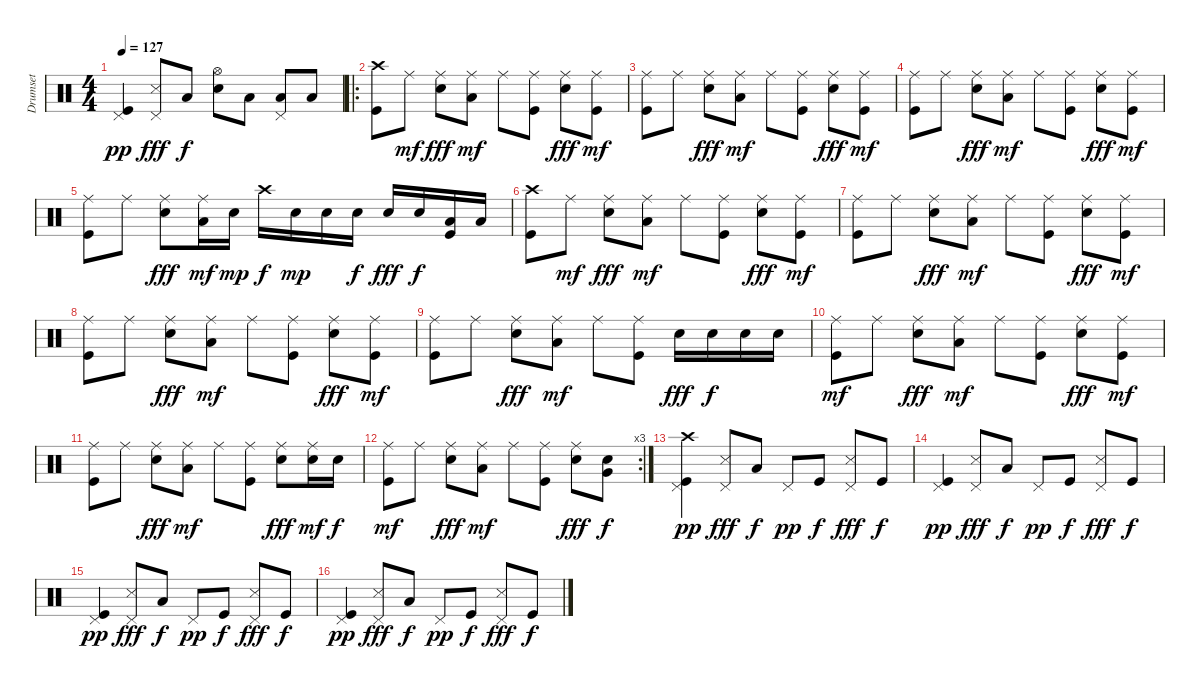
\track ("Drumset" "Drumset") {instrument percussion}
\staff {score}
\articulation defaults
\ts (4 4)
\tempo 127
\clef neutral
\ks c
("Pedal Hi-Hat (hit)" "Kick (hit)").4{dy pp} ("Pedal Hi-Hat (hit)" "Snare (side stick) 3").8{dy fff} "Low Tom (hit)".8{dy f} ("Hi-Hat (open)" "Electric Snare (hit)").8 "Low Tom (hit)".8 ("Pedal Hi-Hat (hit)" "Low Tom (hit)").8 "Low Tom (hit)".8 |
\ro
("Crash high (hit)" "Kick (hit)").8 "Ride (middle)".8{dy mf} ("Ride (middle)" "Electric Snare (hit)").8{dy fff} ("Ride (middle)" "Low Tom (hit)").8{dy mf} "Ride (middle)".8 ("Ride (middle)" "Kick (hit)").8 ("Ride (middle)" "Electric Snare (hit)").8{dy fff} ("Ride (middle)" "Kick (hit)").8{dy mf} |
("Ride (middle)" "Kick (hit)").8 "Ride (middle)".8 ("Ride (middle)" "Electric Snare (hit)").8{dy fff} ("Ride (middle)" "Low Tom (hit)").8{dy mf} "Ride (middle)".8 ("Ride (middle)" "Kick (hit)").8 ("Ride (middle)" "Electric Snare (hit)").8{dy fff} ("Ride (middle)" "Kick (hit)").8{dy mf} |
("Ride (middle)" "Kick (hit)").8 "Ride (middle)".8 ("Ride (middle)" "Electric Snare (hit)").8{dy fff} ("Ride (middle)" "Low Tom (hit)").8{dy mf} "Ride (middle)".8 ("Ride (middle)" "Kick (hit)").8 ("Ride (middle)" "Electric Snare (hit)").8{dy fff} ("Ride (middle)" "Kick (hit)").8{dy mf} |
("Ride (middle)" "Kick (hit)").8 "Ride (middle)".8 ("Ride (middle)" "Electric Snare (hit)").8{dy fff} ("Ride (middle)" "Low Tom (hit)").16{dy mf} "Electric Snare (hit)".16{dy mp} "Crash high (hit)".16{dy f} "Electric Snare (hit)".16{dy mp} "Electric Snare (hit)".16 "Electric Snare (hit)".16{dy f} "Electric Snare (hit)".16{dy fff} "Electric Snare (hit)".16{dy f} ("Low Tom (hit)" "Kick (hit)").16 "Low Tom (hit)".16 |
("Crash high (hit)" "Kick (hit)").8 "Ride (middle)".8{dy mf} ("Ride (middle)" "Electric Snare (hit)").8{dy fff} ("Ride (middle)" "Low Tom (hit)").8{dy mf} "Ride (middle)".8 ("Ride (middle)" "Kick (hit)").8 ("Ride (middle)" "Electric Snare (hit)").8{dy fff} ("Ride (middle)" "Kick (hit)").8{dy mf} |
("Ride (middle)" "Kick (hit)").8 "Ride (middle)".8 ("Ride (middle)" "Electric Snare (hit)").8{dy fff} ("Ride (middle)" "Low Tom (hit)").8{dy mf} "Ride (middle)".8 ("Ride (middle)" "Kick (hit)").8 ("Ride (middle)" "Electric Snare (hit)").8{dy fff} ("Ride (middle)" "Kick (hit)").8{dy mf} |
("Ride (middle)" "Kick (hit)").8 "Ride (middle)".8 ("Ride (middle)" "Electric Snare (hit)").8{dy fff} ("Ride (middle)" "Low Tom (hit)").8{dy mf} "Ride (middle)".8 ("Ride (middle)" "Kick (hit)").8 ("Ride (middle)" "Electric Snare (hit)").8{dy fff} ("Ride (middle)" "Kick (hit)").8{dy mf} |
("Ride (middle)" "Kick (hit)").8 "Ride (middle)".8 ("Ride (middle)" "Electric Snare (hit)").8{dy fff} ("Ride (middle)" "Low Tom (hit)").8{dy mf} "Ride (middle)".8 ("Ride (middle)" "Kick (hit)").8 "Electric Snare (hit)".16{dy fff} "Electric Snare (hit)".16{dy f} "Electric Snare (hit)".16 "Electric Snare (hit)".16 |
("Ride (middle)" "Kick (hit)").8{dy mf} "Ride (middle)".8 ("Ride (middle)" "Electric Snare (hit)").8{dy fff} ("Ride (middle)" "Low Tom (hit)").8{dy mf} "Ride (middle)".8 ("Ride (middle)" "Kick (hit)").8 ("Ride (middle)" "Electric Snare (hit)").8{dy fff} ("Ride (middle)" "Kick (hit)").8{dy mf} |
("Ride (middle)" "Kick (hit)").8 "Ride (middle)".8 ("Ride (middle)" "Electric Snare (hit)").8{dy fff} ("Ride (middle)" "Low Tom (hit)").8{dy mf} "Ride (middle)".8 ("Ride (middle)" "Kick (hit)").8 ("Ride (middle)" "Electric Snare (hit)").8{dy fff} ("Ride (middle)" "Electric Snare (hit)").16{dy mf} "Electric Snare (hit)".16{dy f} |
\rc 3
("Ride (middle)" "Kick (hit)").8{dy mf} "Ride (middle)".8 ("Ride (middle)" "Electric Snare (hit)").8{dy fff} ("Ride (middle)" "Low Tom (hit)").8{dy mf} "Ride (middle)".8 ("Ride (middle)" "Kick (hit)").8 ("Ride (middle)" "Electric Snare (hit)").8{dy fff} ("Electric Snare (hit)" "Very Low Tom (hit)").8{dy f} |
("Crash high (hit)" "Pedal Hi-Hat (hit)" "Kick (hit)").4{dy pp} ("Pedal Hi-Hat (hit)" "Snare (side stick) 3").8{dy fff} "Low Tom (hit)".8{dy f} "Pedal Hi-Hat (hit)".8{dy pp} "Kick (hit)".8{dy f} ("Pedal Hi-Hat (hit)" "Snare (side stick) 3").8{dy fff} "Kick (hit)".8{dy f} |
("Pedal Hi-Hat (hit)" "Kick (hit)").4{dy pp} ("Pedal Hi-Hat (hit)" "Snare (side stick) 3").8{dy fff} "Low Tom (hit)".8{dy f} "Pedal Hi-Hat (hit)".8{dy pp} "Kick (hit)".8{dy f} ("Pedal Hi-Hat (hit)" "Snare (side stick) 3").8{dy fff} "Kick (hit)".8{dy f} |
("Pedal Hi-Hat (hit)" "Kick (hit)").4{dy pp} ("Pedal Hi-Hat (hit)" "Snare (side stick) 3").8{dy fff} "Low Tom (hit)".8{dy f} "Pedal Hi-Hat (hit)".8{dy pp} "Kick (hit)".8{dy f} ("Pedal Hi-Hat (hit)" "Snare (side stick) 3").8{dy fff} "Kick (hit)".8{dy f} |
("Pedal Hi-Hat (hit)" "Kick (hit)").4{dy pp} ("Pedal Hi-Hat (hit)" "Snare (side stick) 3").8{dy fff} "Low Tom (hit)".8{dy f} "Pedal Hi-Hat (hit)".8{dy pp} "Kick (hit)".8{dy f} ("Pedal Hi-Hat (hit)" "Snare (side stick) 3").8{dy fff} "Kick (hit)".8{dy f}
